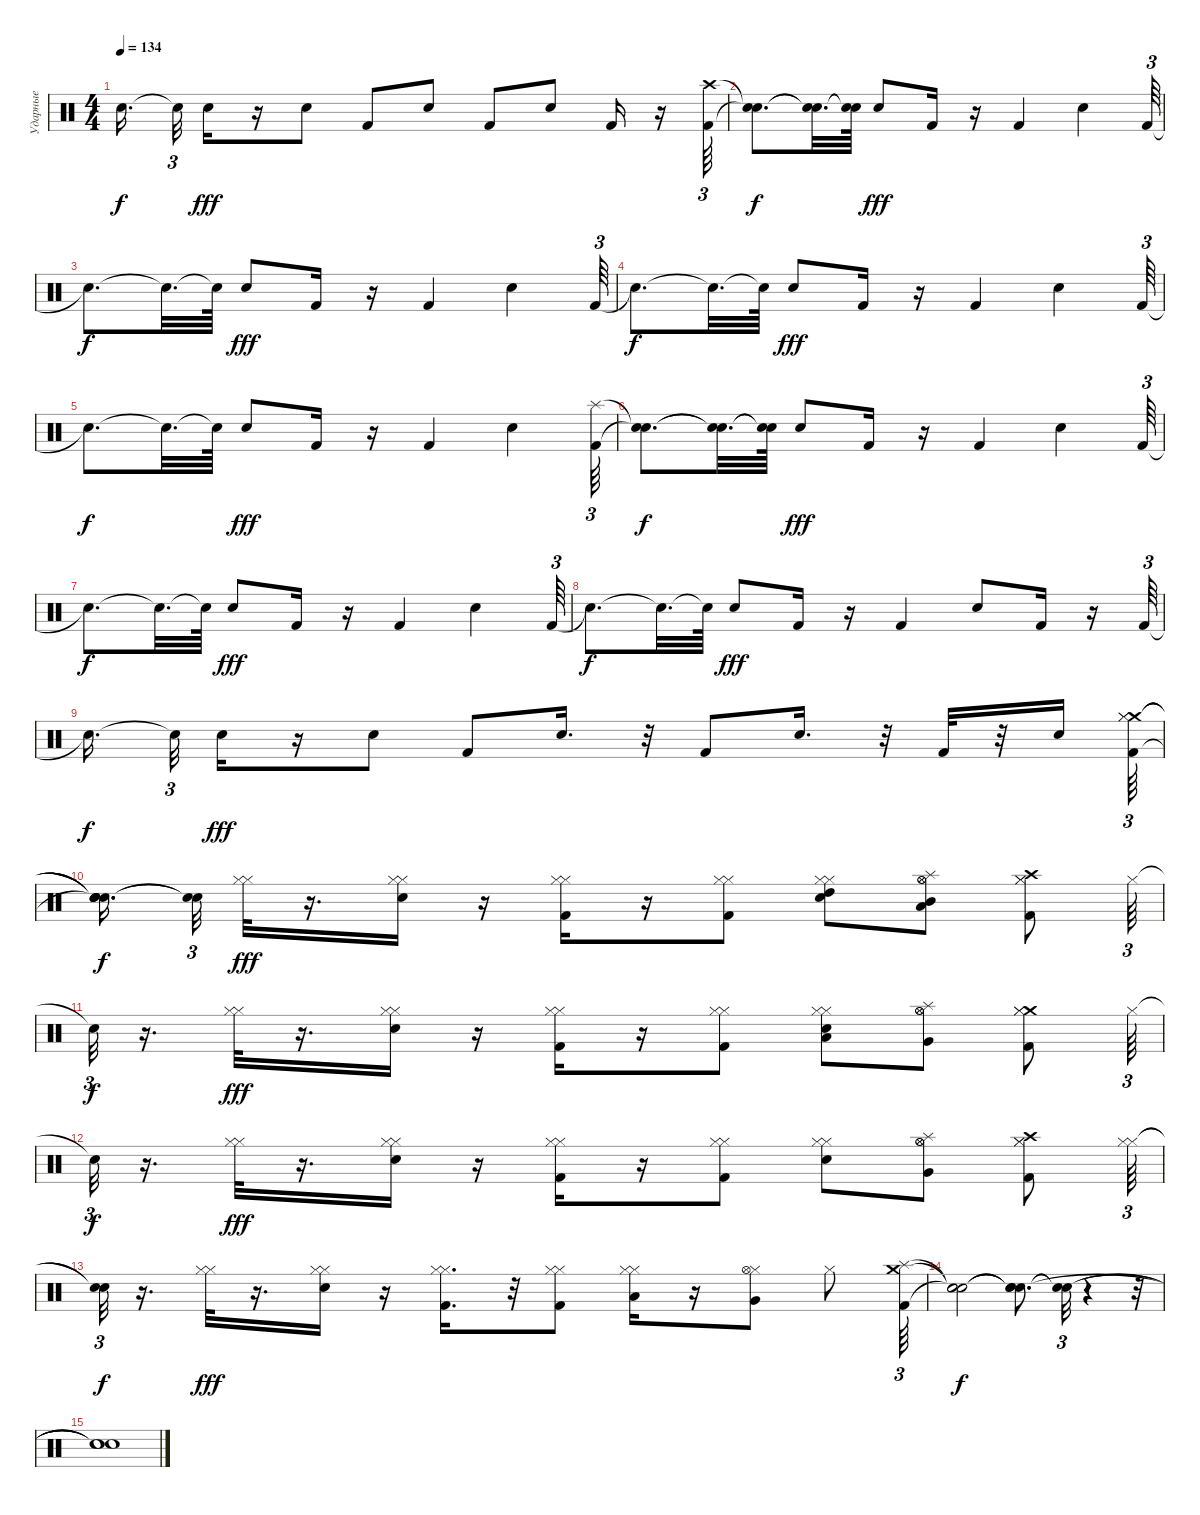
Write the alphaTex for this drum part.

\track ("Ударные" "Ударные") {instrument percussion}
\staff {score}
\articulation defaults
\ts (4 4)
\tempo 134
\clef neutral
\ks c "Snare (hit)"{t}.16{d dy f beam splitsecondary} "Snare (hit)"{t}.32{tu (3 2)} "Electric Snare (hit)".16{dy fff}
r.16 "Electric Snare (hit)".8 "Kick (hit) 2".8 "Electric Snare (hit)".8 "Kick (hit) 2".8 "Electric Snare (hit)".8 "Kick (hit) 2".16 r.16 ("Kick (hit) 2" "Crash high (hit)").64{tu (3 2)} |
("Snare (hit)"{t} "Snare (hit)"{t}).8{d dy f} ("Snare (hit)"{t} "Snare (hit)"{t}).32{d} ("Snare (hit)"{t} "Snare (hit)"{t}).64 "Electric Snare (hit)".8{dy fff} "Kick (hit) 2".16 r.16 "Kick (hit) 2".4 "Electric Snare (hit)".4 "Kick (hit) 2".64{tu (3 2)} |
"Snare (hit)"{t}.8{d dy f} "Snare (hit)"{t}.32{d} "Snare (hit)"{t}.64 "Electric Snare (hit)".8{dy fff} "Kick (hit) 2".16 r.16 "Kick (hit) 2".4 "Electric Snare (hit)".4 "Kick (hit) 2".64{tu (3 2)} |
"Snare (hit)"{t}.8{d dy f} "Snare (hit)"{t}.32{d} "Snare (hit)"{t}.64 "Electric Snare (hit)".8{dy fff} "Kick (hit) 2".16 r.16 "Kick (hit) 2".4 "Electric Snare (hit)".4 "Kick (hit) 2".64{tu (3 2)} |
"Snare (hit)"{t}.8{d dy f} "Snare (hit)"{t}.32{d} "Snare (hit)"{t}.64 "Electric Snare (hit)".8{dy fff} "Kick (hit) 2".16 r.16 "Kick (hit) 2".4 "Electric Snare (hit)".4 ("Kick (hit) 2" "Splash (hit)").64{tu (3 2)} |
("Snare (hit)"{t} "Snare (hit)"{t}).8{d dy f} ("Snare (hit)"{t} "Snare (hit)"{t}).32{d} ("Snare (hit)"{t} "Snare (hit)"{t}).64 "Electric Snare (hit)".8{dy fff} "Kick (hit) 2".16 r.16 "Kick (hit) 2".4 "Electric Snare (hit)".4 "Kick (hit) 2".64{tu (3 2)} |
"Snare (hit)"{t}.8{d dy f} "Snare (hit)"{t}.32{d} "Snare (hit)"{t}.64 "Electric Snare (hit)".8{dy fff} "Kick (hit) 2".16 r.16 "Kick (hit) 2".4 "Electric Snare (hit)".4 "Kick (hit) 2".64{tu (3 2)} |
"Snare (hit)"{t}.8{d dy f} "Snare (hit)"{t}.32{d} "Snare (hit)"{t}.64 "Electric Snare (hit)".8{dy fff} "Kick (hit) 2".16 r.16 "Kick (hit) 2".4 "Electric Snare (hit)".8 "Kick (hit) 2".16 r.16 "Kick (hit) 2".64{tu (3 2)} |
"Snare (hit)"{t}.16{d dy f beam splitsecondary} "Snare (hit)"{t}.32{tu (3 2)} "Electric Snare (hit)".16{dy fff} r.16 "Electric Snare (hit)".8 "Kick (hit) 2".8 "Electric Snare (hit)".16{d} r.32 "Kick (hit) 2".8 "Electric Snare (hit)".16{d} r.32 "Kick (hit) 2".32 r.32 "Electric Snare (hit)".16 ("Crash medium (hit)" "Kick (hit) 2" "Hi-Hat (closed)" "Hi-Hat (closed)").64{tu (3 2)} |
("Snare (hit)"{t} "Snare (hit)"{t} "Snare (hit)"{t} "Snare (hit)"{t}).16{d dy f beam splitsecondary} ("Snare (hit)"{t} "Snare (hit)"{t}).32{tu (3 2)} ("Hi-Hat (closed)" "Hi-Hat (closed)").32{dy fff} r.16{d} ("Electric Snare (hit)" "Hi-Hat (closed)" "Hi-Hat (closed)").16 r.16 ("Kick (hit) 2" "Hi-Hat (closed)" "Hi-Hat (closed)").16 r.16 ("Kick (hit) 2" "Hi-Hat (closed)" "Hi-Hat (closed)").8 ("High Tom (hit)" "Electric Snare (hit)" "Hi-Hat (closed)" "Hi-Hat (closed)").8 ("Mid Tom (hit)" "Low Tom (hit)" "Splash (hit)" "Hi-Hat (open)" "Hi-Hat (open)").8 ("Kick (hit) 2" "Crash high (hit)" "Hi-Hat (closed)" "Hi-Hat (closed)").8 "Hi-Hat (closed)".64{tu (3 2)} |
"Snare (hit)"{t}.32{tu (3 2) dy f} r.16{d} ("Hi-Hat (closed)" "Hi-Hat (closed)").32{dy fff} r.16{d} ("Electric Snare (hit)" "Hi-Hat (closed)" "Hi-Hat (closed)").16 r.16 ("Kick (hit) 2" "Hi-Hat (closed)" "Hi-Hat (closed)").16 r.16 ("Kick (hit) 2" "Hi-Hat (closed)" "Hi-Hat (closed)").8 ("Electric Snare (hit)" "Low Tom (hit)" "Hi-Hat (closed)" "Hi-Hat (closed)").8 ("Very Low Tom (hit)" "Splash (hit)" "Hi-Hat (open)" "Hi-Hat (open)").8 ("Crash medium (hit)" "Kick (hit) 2" "Hi-Hat (closed)" "Hi-Hat (closed)").8 "Hi-Hat (closed)".64{tu (3 2)} |
"Snare (hit)"{t}.32{tu (3 2) dy f} r.16{d} ("Hi-Hat (closed)" "Hi-Hat (closed)").32{dy fff} r.16{d} ("Electric Snare (hit)" "Hi-Hat (closed)" "Hi-Hat (closed)").16 r.16 ("Kick (hit) 2" "Hi-Hat (closed)" "Hi-Hat (closed)").16 r.16 ("Kick (hit) 2" "Hi-Hat (closed)" "Hi-Hat (closed)").8 ("Electric Snare (hit)" "Hi-Hat (closed)" "Hi-Hat (closed)").8 ("Splash (hit)" "Very Low Tom (hit)" "Hi-Hat (open)" "Hi-Hat (open)").8 ("Crash high (hit)" "Kick (hit) 2" "Hi-Hat (closed)" "Hi-Hat (closed)").8 ("Hi-Hat (closed)" "Hi-Hat (closed)").64{tu (3 2)} |
("Snare (hit)"{t} "Snare (hit)"{t}).32{tu (3 2) dy f} r.16{d} ("Hi-Hat (closed)" "Hi-Hat (closed)").32{dy fff} r.16{d} ("Electric Snare (hit)" "Hi-Hat (closed)" "Hi-Hat (closed)").16 r.16 ("Kick (hit) 2" "Hi-Hat (closed)" "Hi-Hat (closed)").16{d} r.32 ("Kick (hit) 2" "Hi-Hat (closed)" "Hi-Hat (closed)").8 ("Low Tom (hit)" "Hi-Hat (closed)" "Hi-Hat (closed)").16 r.16 ("Very Low Tom (hit)" "Hi-Hat (closed)" "Hi-Hat (open)").8 "Hi-Hat (closed)".8 ("Crash medium (hit)" "Splash (hit)" "Kick (hit) 2").64{tu (3 2)} |
("Snare (hit)"{t} "Snare (hit)"{t} "Snare (hit)"{t}).2{dy f} ("Snare (hit)"{t} "Snare (hit)"{t} "Snare (hit)"{t}).8{d} ("Snare (hit)"{t} "Snare (hit)"{t}).32{tu (3 2)} r.4 r.32 |
("Snare (hit)"{t} "Snare (hit)"{t} "Snare (hit)"{t}).1
